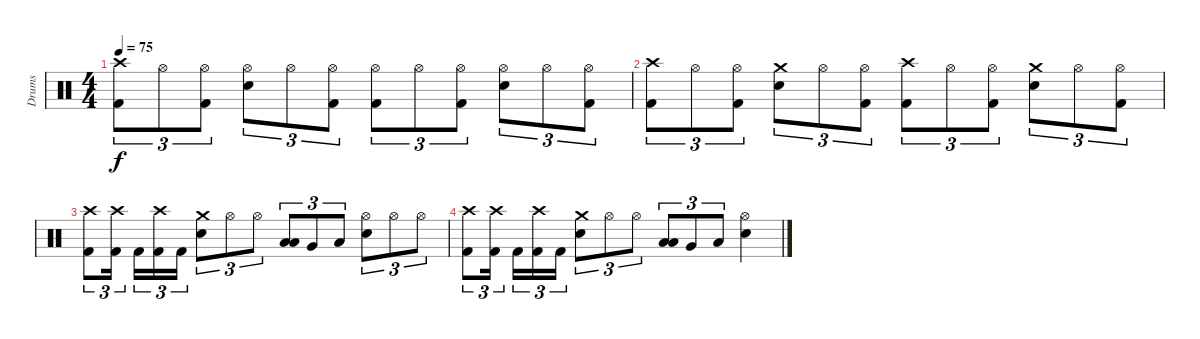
\track ("Drums" "Drums") {instrument percussion}
\staff {score}
\articulation defaults
\ts (4 4)
\tempo 75
\clef neutral
\ks c
("Crash high (hit)" "Kick (hit) 2").8{tu (3 2) dy f} "Hi-Hat (open)".8{tu (3 2)} ("Hi-Hat (open)" "Kick (hit) 2").8{tu (3 2)} ("Hi-Hat (open)" "Electric Snare (hit)").8{tu (3 2)} "Hi-Hat (open)".8{tu (3 2)} ("Hi-Hat (open)" "Kick (hit) 2").8{tu (3 2)} ("Hi-Hat (open)" "Kick (hit) 2").8{tu (3 2)} "Hi-Hat (open)".8{tu (3 2)} ("Hi-Hat (open)" "Kick (hit) 2").8{tu (3 2)} ("Hi-Hat (open)" "Electric Snare (hit)").8{tu (3 2)} "Hi-Hat (open)".8{tu (3 2)} ("Hi-Hat (open)" "Kick (hit) 2").8{tu (3 2)} |
("Crash high (hit)" "Kick (hit) 2").8{tu (3 2)} "Hi-Hat (open)".8{tu (3 2)} ("Hi-Hat (open)" "Kick (hit) 2").8{tu (3 2)} ("Crash medium (hit)" "Electric Snare (hit)").8{tu (3 2)} "Hi-Hat (open)".8{tu (3 2)} ("Hi-Hat (open)" "Kick (hit) 2").8{tu (3 2)} ("Crash high (hit)" "Kick (hit) 2").8{tu (3 2)} "Hi-Hat (open)".8{tu (3 2)} ("Hi-Hat (open)" "Kick (hit) 2").8{tu (3 2)} ("Crash medium (hit)" "Electric Snare (hit)").8{tu (3 2)} "Hi-Hat (open)".8{tu (3 2)} ("Hi-Hat (open)" "Kick (hit) 2").8{tu (3 2)} |
("Crash high (hit)" "Kick (hit) 2").8{tu (3 2)} ("Crash high (hit)" "Kick (hit) 2").16{tu (3 2)} "Kick (hit) 2".16{tu (3 2)} ("Crash high (hit)" "Kick (hit) 2").16{tu (3 2)} "Kick (hit) 2".16{tu (3 2)} ("Crash medium (hit)" "Electric Snare (hit)").8{tu (3 2)} "Hi-Hat (open)".8{tu (3 2)} "Hi-Hat (open)".8{tu (3 2)} ("Low Tom (hit)" "Low Tom (hit)").8{tu (3 2) bu 60} "Very Low Tom (hit)".8{tu (3 2)} "Low Floor Tom (hit)".8{tu (3 2)} ("Hi-Hat (open)" "Electric Snare (hit)").8{tu (3 2)} "Hi-Hat (open)".8{tu (3 2)} "Hi-Hat (open)".8{tu (3 2)} |
("Crash high (hit)" "Kick (hit) 2").8{tu (3 2)} ("Crash high (hit)" "Kick (hit) 2").16{tu (3 2)} "Kick (hit) 2".16{tu (3 2)} ("Crash high (hit)" "Kick (hit) 2").16{tu (3 2)} "Kick (hit) 2".16{tu (3 2)} ("Crash medium (hit)" "Electric Snare (hit)").8{tu (3 2)} "Hi-Hat (open)".8{tu (3 2)} "Hi-Hat (open)".8{tu (3 2)} ("Low Tom (hit)" "Low Tom (hit)").8{tu (3 2) bu 60} "Very Low Tom (hit)".8{tu (3 2)} "Low Floor Tom (hit)".8{tu (3 2)} ("Hi-Hat (open)" "Electric Snare (hit)").4
